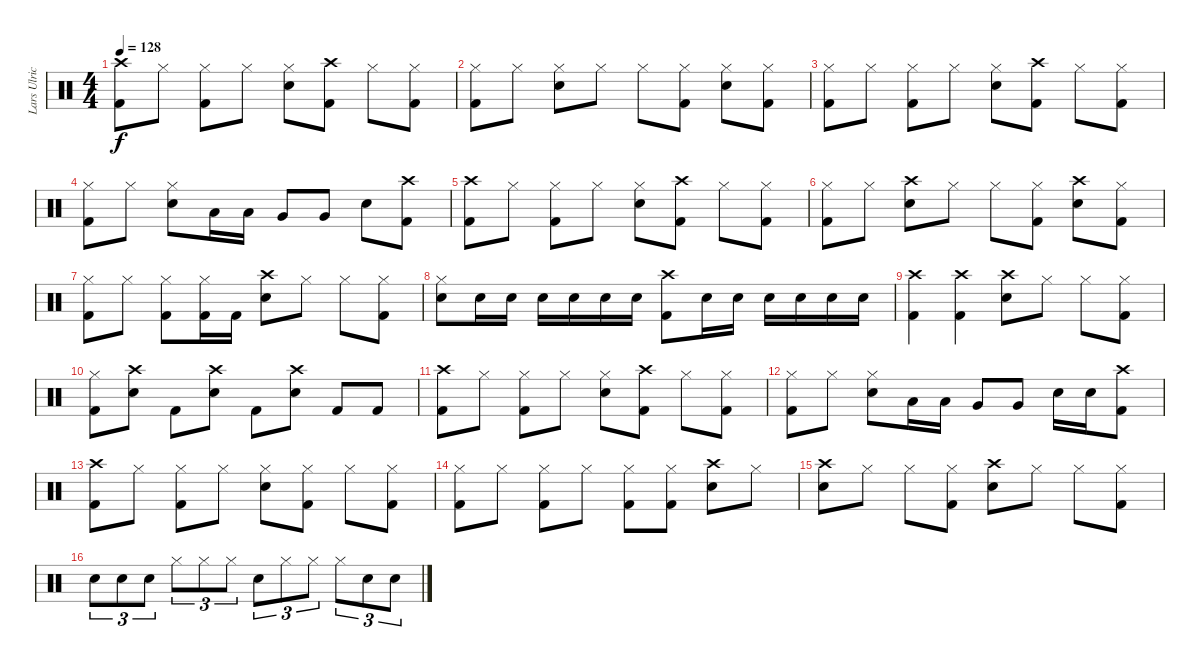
\track ("Lars Ulrich" "Lars Ulric") {instrument percussion}
\staff {score}
\articulation defaults
\ts (4 4)
\tempo 128
\clef neutral
\ks c
("Crash high (hit)" "Kick (hit) 2").8{dy f} "Hi-Hat (closed)".8 ("Hi-Hat (closed)" "Kick (hit) 2").8 "Hi-Hat (closed)".8 ("Hi-Hat (closed)" "Electric Snare (hit)").8 ("Crash high (hit)" "Kick (hit) 2").8 "Hi-Hat (closed)".8 ("Hi-Hat (closed)" "Kick (hit) 2").8 |
("Hi-Hat (closed)" "Kick (hit) 2").8 "Hi-Hat (closed)".8 ("Hi-Hat (closed)" "Electric Snare (hit)").8 "Hi-Hat (closed)".8 "Hi-Hat (closed)".8 ("Hi-Hat (closed)" "Kick (hit) 2").8 ("Hi-Hat (closed)" "Electric Snare (hit)").8 ("Hi-Hat (closed)" "Kick (hit) 2").8 |
("Hi-Hat (closed)" "Kick (hit) 2").8 "Hi-Hat (closed)".8 ("Hi-Hat (closed)" "Kick (hit) 2").8 "Hi-Hat (closed)".8 ("Hi-Hat (closed)" "Electric Snare (hit)").8 ("Crash high (hit)" "Kick (hit) 2").8 "Hi-Hat (closed)".8 ("Hi-Hat (closed)" "Kick (hit) 2").8 |
("Hi-Hat (closed)" "Kick (hit) 2").8 "Hi-Hat (closed)".8 ("Hi-Hat (closed)" "Electric Snare (hit)").8 "Low Floor Tom (hit)".16 "Low Floor Tom (hit)".16 "Very Low Tom (hit)".8 "Very Low Tom (hit)".8 "Electric Snare (hit)".8 ("Crash high (hit)" "Kick (hit) 2").8 |
("Crash high (hit)" "Kick (hit) 2").8 "Hi-Hat (closed)".8 ("Hi-Hat (closed)" "Kick (hit) 2").8 "Hi-Hat (closed)".8 ("Hi-Hat (closed)" "Electric Snare (hit)").8 ("Crash high (hit)" "Kick (hit) 2").8 "Hi-Hat (closed)".8 ("Hi-Hat (closed)" "Kick (hit) 2").8 |
("Hi-Hat (closed)" "Kick (hit) 2").8 "Hi-Hat (closed)".8 ("Crash high (hit)" "Electric Snare (hit)").8 "Hi-Hat (closed)".8 "Hi-Hat (closed)".8 ("Hi-Hat (closed)" "Kick (hit) 2").8 ("Crash high (hit)" "Electric Snare (hit)").8 ("Hi-Hat (closed)" "Kick (hit) 2").8 |
("Hi-Hat (closed)" "Kick (hit) 2").8 "Hi-Hat (closed)".8 ("Hi-Hat (closed)" "Kick (hit) 2").8 ("Hi-Hat (closed)" "Kick (hit) 2").16 "Kick (hit) 2".16 ("Crash high (hit)" "Electric Snare (hit)").8 "Hi-Hat (closed)".8 "Hi-Hat (closed)".8 ("Hi-Hat (closed)" "Kick (hit) 2").8 |
("Hi-Hat (closed)" "Electric Snare (hit)").8 "Electric Snare (hit)".16 "Electric Snare (hit)".16 "Electric Snare (hit)".16 "Electric Snare (hit)".16 "Electric Snare (hit)".16 "Electric Snare (hit)".16 ("Crash high (hit)" "Kick (hit) 2").8 "Electric Snare (hit)".16 "Electric Snare (hit)".16 "Electric Snare (hit)".16 "Electric Snare (hit)".16 "Electric Snare (hit)".16 "Electric Snare (hit)".16 |
("Crash high (hit)" "Kick (hit) 2").4 ("Crash high (hit)" "Kick (hit) 2").4 ("Crash high (hit)" "Electric Snare (hit)").8 "Hi-Hat (closed)".8 "Hi-Hat (closed)".8 ("Hi-Hat (closed)" "Kick (hit) 2").8 |
("Hi-Hat (closed)" "Kick (hit) 2").8 ("Crash high (hit)" "Electric Snare (hit)").8 "Kick (hit) 2".8 ("Crash high (hit)" "Electric Snare (hit)").8 "Kick (hit) 2".8 ("Crash high (hit)" "Electric Snare (hit)").8 "Kick (hit) 2".8 "Kick (hit) 2".8 |
("Crash high (hit)" "Kick (hit) 2").8 "Hi-Hat (closed)".8 ("Hi-Hat (closed)" "Kick (hit) 2").8 "Hi-Hat (closed)".8 ("Hi-Hat (closed)" "Electric Snare (hit)").8 ("Crash high (hit)" "Kick (hit) 2").8 "Hi-Hat (closed)".8 ("Hi-Hat (closed)" "Kick (hit) 2").8 |
("Hi-Hat (closed)" "Kick (hit) 2").8 "Hi-Hat (closed)".8 ("Hi-Hat (closed)" "Electric Snare (hit)").8 "Low Floor Tom (hit)".16 "Low Floor Tom (hit)".16 "Very Low Tom (hit)".8 "Very Low Tom (hit)".8 "Electric Snare (hit)".16 "Electric Snare (hit)".16 ("Crash high (hit)" "Kick (hit) 2").8 |
("Crash high (hit)" "Kick (hit) 2").8 "Hi-Hat (closed)".8 ("Hi-Hat (closed)" "Kick (hit) 2").8 "Hi-Hat (closed)".8 ("Hi-Hat (closed)" "Electric Snare (hit)").8 ("Hi-Hat (closed)" "Kick (hit) 2").8 "Hi-Hat (closed)".8 ("Hi-Hat (closed)" "Kick (hit) 2").8 |
("Hi-Hat (closed)" "Kick (hit) 2").8 "Hi-Hat (closed)".8 ("Hi-Hat (closed)" "Kick (hit) 2").8 "Hi-Hat (closed)".8 ("Hi-Hat (closed)" "Kick (hit) 2").8 ("Hi-Hat (closed)" "Kick (hit) 2").8 ("Crash high (hit)" "Electric Snare (hit)").8 "Hi-Hat (closed)".8 |
("Crash high (hit)" "Electric Snare (hit)").8 "Hi-Hat (closed)".8 "Hi-Hat (closed)".8 ("Hi-Hat (closed)" "Kick (hit) 2").8 ("Crash high (hit)" "Electric Snare (hit)").8 "Hi-Hat (closed)".8 "Hi-Hat (closed)".8 ("Hi-Hat (closed)" "Kick (hit) 2").8 |
"Electric Snare (hit)".8{tu (3 2)} "Electric Snare (hit)".8{tu (3 2)} "Electric Snare (hit)".8{tu (3 2)} "Hi-Hat (closed)".8{tu (3 2)} "Hi-Hat (closed)".8{tu (3 2)} "Hi-Hat (closed)".8{tu (3 2)} "Electric Snare (hit)".8{tu (3 2)} "Hi-Hat (closed)".8{tu (3 2)} "Hi-Hat (closed)".8{tu (3 2)} "Hi-Hat (closed)".8{tu (3 2)} "Electric Snare (hit)".8{tu (3 2)} "Electric Snare (hit)".8{tu (3 2)}
